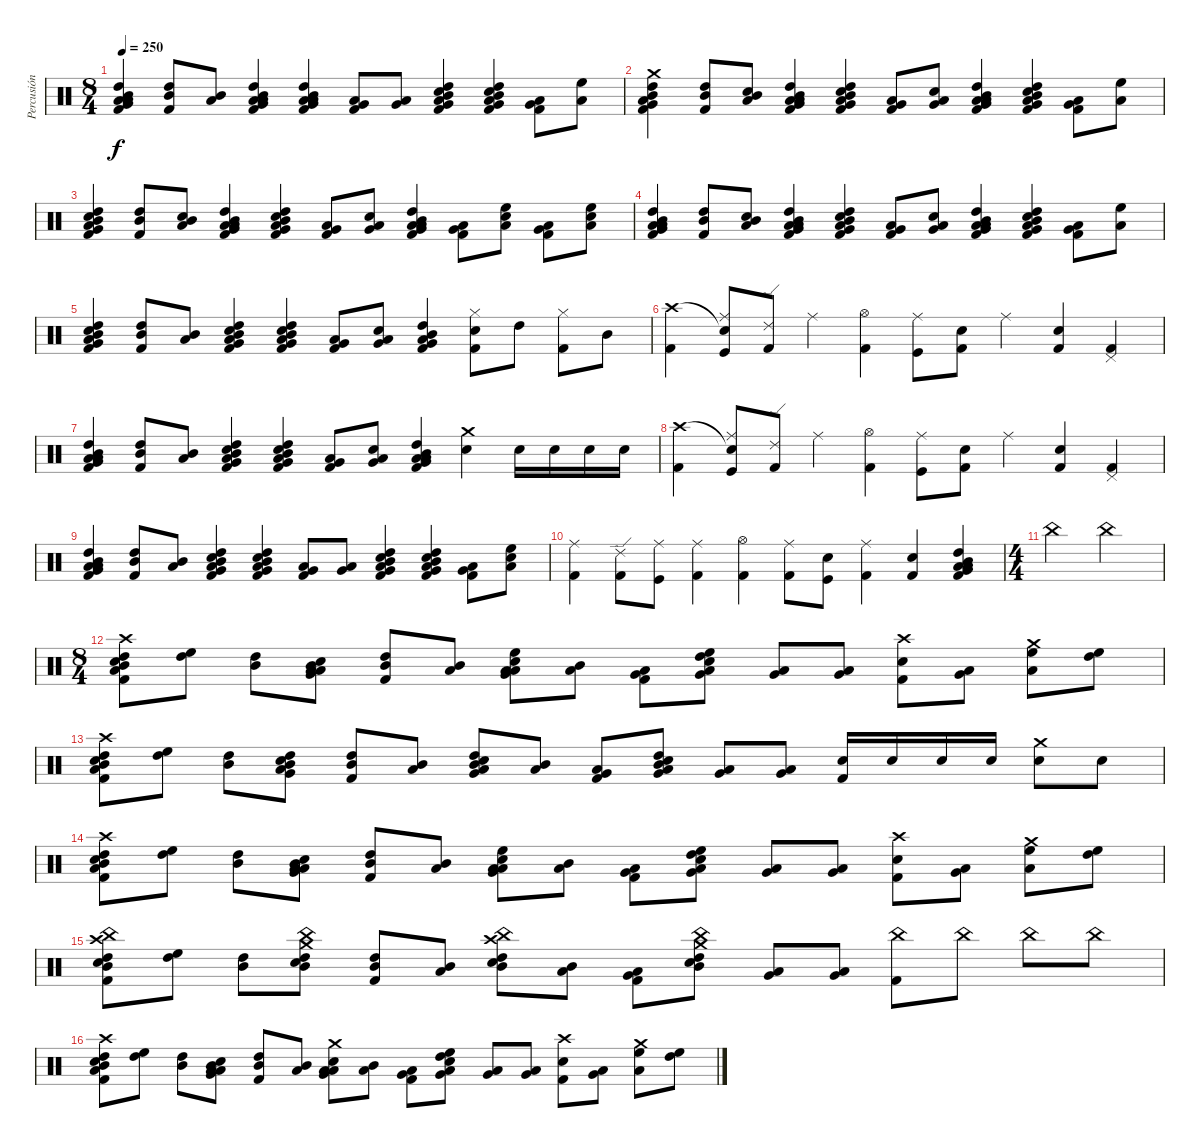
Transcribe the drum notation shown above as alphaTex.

\track ("Percusión" "Percusión") {instrument percussion}
\staff {score}
\articulation defaults
\ts (8 4)
\tempo 250
\clef neutral
\ks c
("Low Floor Tom (hit)" "Very Low Tom (hit)" "Low Tom (hit)" "Mid Tom (hit)" "High Tom (hit)" "Kick (hit) 2").4{dy f} ("Mid Tom (hit)" "High Tom (hit)" "Kick (hit) 2").8 ("Low Tom (hit)" "Mid Tom (hit)").8 ("Low Floor Tom (hit)" "Very Low Tom (hit)" "Low Tom (hit)" "Mid Tom (hit)" "High Tom (hit)" "Kick (hit) 2").4 ("Low Floor Tom (hit)" "Very Low Tom (hit)" "Low Tom (hit)" "Mid Tom (hit)" "High Tom (hit)" "Kick (hit) 2").4 ("Very Low Tom (hit)" "Low Tom (hit)" "Kick (hit) 2").8 ("Low Floor Tom (hit)" "Very Low Tom (hit)").8 ("Electric Snare (hit)" "Very Low Tom (hit)" "Low Tom (hit)" "Mid Tom (hit)" "High Tom (hit)" "Kick (hit) 2").4 ("Electric Snare (hit)" "Very Low Tom (hit)" "Low Tom (hit)" "Mid Tom (hit)" "High Tom (hit)" "Kick (hit) 2").4 ("Low Floor Tom (hit)" "Very Low Tom (hit)" "Kick (hit) 2").8 ("High Floor Tom (hit)" "Low Floor Tom (hit)").8 |
("Crash medium (hit)" "Very Low Tom (hit)" "Low Tom (hit)" "Mid Tom (hit)" "High Tom (hit)" "Kick (hit) 2").4 ("Mid Tom (hit)" "High Tom (hit)" "Kick (hit) 2").8 ("Electric Snare (hit)" "Low Tom (hit)" "Mid Tom (hit)").8 ("Low Floor Tom (hit)" "Very Low Tom (hit)" "Low Tom (hit)" "Mid Tom (hit)" "High Tom (hit)" "Kick (hit) 2").4 ("Electric Snare (hit)" "Very Low Tom (hit)" "Low Tom (hit)" "Mid Tom (hit)" "High Tom (hit)" "Kick (hit) 2").4 ("Very Low Tom (hit)" "Low Tom (hit)" "Kick (hit) 2").8 ("Electric Snare (hit)" "Low Floor Tom (hit)" "Very Low Tom (hit)").8 ("Low Floor Tom (hit)" "Very Low Tom (hit)" "Low Tom (hit)" "Mid Tom (hit)" "High Tom (hit)" "Kick (hit) 2").4 ("Electric Snare (hit)" "Very Low Tom (hit)" "Low Tom (hit)" "Mid Tom (hit)" "High Tom (hit)" "Kick (hit) 2").4 ("Low Floor Tom (hit)" "Very Low Tom (hit)" "Kick (hit) 2").8 ("High Floor Tom (hit)" "Low Floor Tom (hit)").8 |
("Electric Snare (hit)" "Very Low Tom (hit)" "Low Tom (hit)" "Mid Tom (hit)" "High Tom (hit)" "Kick (hit) 2").4 ("Mid Tom (hit)" "High Tom (hit)" "Kick (hit) 2").8 ("Electric Snare (hit)" "Low Tom (hit)" "Mid Tom (hit)").8 ("Low Floor Tom (hit)" "Very Low Tom (hit)" "Low Tom (hit)" "Mid Tom (hit)" "High Tom (hit)" "Kick (hit) 2").4 ("Electric Snare (hit)" "Very Low Tom (hit)" "Low Tom (hit)" "Mid Tom (hit)" "High Tom (hit)" "Kick (hit) 2").4 ("Very Low Tom (hit)" "Low Tom (hit)" "Kick (hit) 2").8 ("Electric Snare (hit)" "Low Floor Tom (hit)" "Very Low Tom (hit)").8 ("Low Floor Tom (hit)" "Very Low Tom (hit)" "Low Tom (hit)" "Mid Tom (hit)" "High Tom (hit)" "Kick (hit) 2").4 ("Low Floor Tom (hit)" "Very Low Tom (hit)" "Kick (hit) 2").8 ("Electric Snare (hit)" "High Floor Tom (hit)" "Low Floor Tom (hit)").8 ("Low Floor Tom (hit)" "Very Low Tom (hit)" "Kick (hit) 2").8 ("Electric Snare (hit)" "High Floor Tom (hit)" "Low Floor Tom (hit)").8 |
("Low Floor Tom (hit)" "Very Low Tom (hit)" "Low Tom (hit)" "Mid Tom (hit)" "High Tom (hit)" "Kick (hit) 2").4 ("Mid Tom (hit)" "High Tom (hit)" "Kick (hit) 2").8 ("Electric Snare (hit)" "Low Tom (hit)" "Mid Tom (hit)").8 ("Low Floor Tom (hit)" "Very Low Tom (hit)" "Low Tom (hit)" "Mid Tom (hit)" "High Tom (hit)" "Kick (hit) 2").4 ("Electric Snare (hit)" "Very Low Tom (hit)" "Low Tom (hit)" "Mid Tom (hit)" "High Tom (hit)" "Kick (hit) 2").4 ("Very Low Tom (hit)" "Low Tom (hit)" "Kick (hit) 2").8 ("Electric Snare (hit)" "Low Floor Tom (hit)" "Very Low Tom (hit)").8 ("Low Floor Tom (hit)" "Very Low Tom (hit)" "Low Tom (hit)" "Mid Tom (hit)" "High Tom (hit)" "Kick (hit) 2").4 ("Electric Snare (hit)" "Very Low Tom (hit)" "Low Tom (hit)" "Mid Tom (hit)" "High Tom (hit)" "Kick (hit) 2").4 ("Low Floor Tom (hit)" "Very Low Tom (hit)" "Kick (hit) 2").8 ("High Floor Tom (hit)" "Low Floor Tom (hit)").8 |
("Electric Snare (hit)" "Very Low Tom (hit)" "Low Tom (hit)" "Mid Tom (hit)" "High Tom (hit)" "Kick (hit) 2").4 ("Mid Tom (hit)" "High Tom (hit)" "Kick (hit) 2").8 ("Low Tom (hit)" "Mid Tom (hit)").8 ("Electric Snare (hit)" "Very Low Tom (hit)" "Low Tom (hit)" "Mid Tom (hit)" "High Tom (hit)" "Kick (hit) 2").4 ("Electric Snare (hit)" "Very Low Tom (hit)" "Low Tom (hit)" "Mid Tom (hit)" "High Tom (hit)" "Kick (hit) 2").4 ("Very Low Tom (hit)" "Low Tom (hit)" "Kick (hit) 2").8 ("Electric Snare (hit)" "Low Floor Tom (hit)" "Very Low Tom (hit)").8 ("Very Low Tom (hit)" "Low Tom (hit)" "Mid Tom (hit)" "High Tom (hit)" "Kick (hit) 2").4 ("Electric Snare (hit)" "Hi-Hat (closed)" "Kick (hit) 2").8 "High Tom (hit)".8 ("Hi-Hat (closed)" "Kick (hit) 2").8 "Mid Tom (hit)".8 |
("Crash high (hit)" "Kick (hit) 2").4 ("Snare (hit)"{t} "Ride (middle)" "Kick (hit)").8 ("Ride (edge) 2" "Kick (hit) 2").8 "Ride (middle)".4 ("Hi-Hat (open)" "Kick (hit) 2").4 ("Ride (middle)" "Kick (hit)").8 ("Electric Snare (hit)" "Kick (hit) 2").8 "Ride (middle)".4 ("Electric Snare (hit)" "Kick (hit) 2").4 ("Pedal Hi-Hat (hit)" "Kick (hit) 2").4 |
("Low Floor Tom (hit)" "Very Low Tom (hit)" "Low Tom (hit)" "Mid Tom (hit)" "High Tom (hit)" "Kick (hit) 2").4 ("Mid Tom (hit)" "High Tom (hit)" "Kick (hit) 2").8 ("Low Tom (hit)" "Mid Tom (hit)").8 ("Electric Snare (hit)" "Very Low Tom (hit)" "Low Tom (hit)" "Mid Tom (hit)" "High Tom (hit)" "Kick (hit) 2").4 ("Electric Snare (hit)" "Very Low Tom (hit)" "Low Tom (hit)" "Mid Tom (hit)" "High Tom (hit)" "Kick (hit) 2").4 ("Very Low Tom (hit)" "Low Tom (hit)" "Kick (hit) 2").8 ("Electric Snare (hit)" "Low Floor Tom (hit)" "Very Low Tom (hit)").8 ("Low Floor Tom (hit)" "Very Low Tom (hit)" "Low Tom (hit)" "Mid Tom (hit)" "High Tom (hit)" "Kick (hit) 2").4 ("Crash medium (hit)" "Electric Snare (hit)").4 "Electric Snare (hit)".16 "Electric Snare (hit)".16 "Electric Snare (hit)".16 "Electric Snare (hit)".16 |
("Crash high (hit)" "Kick (hit) 2").4 ("Snare (hit)"{t} "Ride (middle)" "Kick (hit)").8 ("Ride (edge) 2" "Kick (hit) 2").8 "Ride (middle)".4 ("Hi-Hat (open)" "Kick (hit) 2").4 ("Ride (middle)" "Kick (hit)").8 ("Electric Snare (hit)" "Kick (hit) 2").8 "Ride (middle)".4 ("Electric Snare (hit)" "Kick (hit) 2").4 ("Pedal Hi-Hat (hit)" "Kick (hit) 2").4 |
("Low Floor Tom (hit)" "Very Low Tom (hit)" "Low Tom (hit)" "Mid Tom (hit)" "High Tom (hit)" "Kick (hit) 2").4 ("Mid Tom (hit)" "High Tom (hit)" "Kick (hit) 2").8 ("Low Tom (hit)" "Mid Tom (hit)").8 ("Electric Snare (hit)" "Very Low Tom (hit)" "Low Tom (hit)" "Mid Tom (hit)" "High Tom (hit)" "Kick (hit) 2").4 ("Electric Snare (hit)" "Very Low Tom (hit)" "Low Tom (hit)" "Mid Tom (hit)" "High Tom (hit)" "Kick (hit) 2").4 ("Very Low Tom (hit)" "Low Tom (hit)" "Kick (hit) 2").8 ("Low Floor Tom (hit)" "Very Low Tom (hit)").8 ("Electric Snare (hit)" "Very Low Tom (hit)" "Low Tom (hit)" "Mid Tom (hit)" "High Tom (hit)" "Kick (hit) 2").4 ("Electric Snare (hit)" "Very Low Tom (hit)" "Low Tom (hit)" "Mid Tom (hit)" "High Tom (hit)" "Kick (hit) 2").4 ("Low Floor Tom (hit)" "Very Low Tom (hit)" "Kick (hit) 2").8 ("Electric Snare (hit)" "High Floor Tom (hit)" "Low Floor Tom (hit)").8 |
("Ride (middle)" "Kick (hit) 2").4 ("Ride (edge) 2" "Kick (hit) 2").8 ("Ride (middle)" "Kick (hit)").8 ("Ride (middle)" "Kick (hit) 2").4 ("Hi-Hat (open)" "Kick (hit) 2").4 ("Ride (middle)" "Kick (hit) 2").8 ("Electric Snare (hit)" "Kick (hit)").8 ("Ride (middle)" "Kick (hit) 2").4 ("Electric Snare (hit)" "Kick (hit) 2").4 ("Low Floor Tom (hit)" "Very Low Tom (hit)" "Low Tom (hit)" "Mid Tom (hit)" "High Tom (hit)" "Kick (hit) 2").4 |
\ts (4 4)
"China (hit)".2 "China (hit)".2 |
\ts (8 4)
("Crash high (hit)" "Low Tom (hit)" "Mid Tom (hit)" "High Tom (hit)" "Electric Snare (hit)" "Kick (hit) 2").8 ("High Tom (hit)" "High Floor Tom (hit)").8 ("Mid Tom (hit)" "High Tom (hit)").8 ("Low Floor Tom (hit)" "Very Low Tom (hit)" "Low Tom (hit)" "Mid Tom (hit)" "Electric Snare (hit)").8 ("Mid Tom (hit)" "High Tom (hit)" "Kick (hit) 2").8 ("Low Tom (hit)" "Mid Tom (hit)").8 ("High Floor Tom (hit)" "Low Floor Tom (hit)" "Very Low Tom (hit)" "Low Tom (hit)" "Electric Snare (hit)").8 ("Low Tom (hit)" "Mid Tom (hit)").8 ("Very Low Tom (hit)" "Low Tom (hit)" "Kick (hit) 2").8 ("High Tom (hit)" "High Floor Tom (hit)" "Low Floor Tom (hit)" "Very Low Tom (hit)" "Electric Snare (hit)").8 ("Very Low Tom (hit)" "Low Tom (hit)").8 ("Low Floor Tom (hit)" "Very Low Tom (hit)").8 ("Crash high (hit)" "Electric Snare (hit)" "Kick (hit) 2").8 ("Low Floor Tom (hit)" "Very Low Tom (hit)").8 ("Crash medium (hit)" "High Floor Tom (hit)" "Low Floor Tom (hit)").8 ("High Tom (hit)" "High Floor Tom (hit)").8 |
("Crash high (hit)" "Low Tom (hit)" "Mid Tom (hit)" "High Tom (hit)" "Electric Snare (hit)" "Kick (hit) 2").8 ("High Tom (hit)" "High Floor Tom (hit)").8 ("Mid Tom (hit)" "High Tom (hit)").8 ("Very Low Tom (hit)" "Low Tom (hit)" "Mid Tom (hit)" "High Tom (hit)" "Electric Snare (hit)").8 ("Mid Tom (hit)" "High Tom (hit)" "Kick (hit) 2").8 ("Low Tom (hit)" "Mid Tom (hit)").8 ("Very Low Tom (hit)" "Low Tom (hit)" "Mid Tom (hit)" "High Tom (hit)" "Electric Snare (hit)").8 ("Low Tom (hit)" "Mid Tom (hit)").8 ("Very Low Tom (hit)" "Low Tom (hit)" "Kick (hit) 2").8 ("Very Low Tom (hit)" "Low Tom (hit)" "Mid Tom (hit)" "High Tom (hit)" "Electric Snare (hit)").8 ("Very Low Tom (hit)" "Low Tom (hit)").8 ("Low Floor Tom (hit)" "Very Low Tom (hit)").8 ("Electric Snare (hit)" "Kick (hit) 2").16 "Electric Snare (hit)".16 "Electric Snare (hit)".16 "Electric Snare (hit)".16 ("Crash medium (hit)" "Electric Snare (hit)").8 "Electric Snare (hit)".8 |
("Crash high (hit)" "Low Tom (hit)" "Mid Tom (hit)" "High Tom (hit)" "Electric Snare (hit)" "Kick (hit) 2").8 ("High Tom (hit)" "High Floor Tom (hit)").8 ("Mid Tom (hit)" "High Tom (hit)").8 ("Low Floor Tom (hit)" "Very Low Tom (hit)" "Low Tom (hit)" "Mid Tom (hit)" "Electric Snare (hit)").8 ("Mid Tom (hit)" "High Tom (hit)" "Kick (hit) 2").8 ("Low Tom (hit)" "Mid Tom (hit)").8 ("High Floor Tom (hit)" "Low Floor Tom (hit)" "Very Low Tom (hit)" "Low Tom (hit)" "Electric Snare (hit)").8 ("Low Tom (hit)" "Mid Tom (hit)").8 ("Very Low Tom (hit)" "Low Tom (hit)" "Kick (hit) 2").8 ("High Tom (hit)" "High Floor Tom (hit)" "Low Floor Tom (hit)" "Very Low Tom (hit)" "Electric Snare (hit)").8 ("Very Low Tom (hit)" "Low Tom (hit)").8 ("Low Floor Tom (hit)" "Very Low Tom (hit)").8 ("Crash high (hit)" "Electric Snare (hit)" "Kick (hit) 2").8 ("Low Floor Tom (hit)" "Very Low Tom (hit)").8 ("Crash medium (hit)" "High Floor Tom (hit)" "Low Floor Tom (hit)").8 ("High Tom (hit)" "High Floor Tom (hit)").8 |
("Crash high (hit)" "China (hit)" "Mid Tom (hit)" "High Tom (hit)" "Electric Snare (hit)" "Kick (hit) 2").8 ("High Tom (hit)" "High Floor Tom (hit)").8 ("Mid Tom (hit)" "High Tom (hit)").8 ("Crash medium (hit)" "China (hit)" "Mid Tom (hit)" "High Tom (hit)" "Electric Snare (hit)").8 ("Mid Tom (hit)" "High Tom (hit)" "Kick (hit) 2").8 ("Low Tom (hit)" "Mid Tom (hit)").8 ("Crash high (hit)" "China (hit)" "Mid Tom (hit)" "High Tom (hit)" "Electric Snare (hit)").8 ("Low Tom (hit)" "Mid Tom (hit)").8 ("Very Low Tom (hit)" "Low Tom (hit)" "Kick (hit) 2").8 ("Crash medium (hit)" "China (hit)" "Mid Tom (hit)" "High Tom (hit)" "Electric Snare (hit)").8 ("Very Low Tom (hit)" "Low Tom (hit)").8 ("Low Floor Tom (hit)" "Very Low Tom (hit)").8 ("China (hit)" "Kick (hit) 2").8 "China (hit)".8 "China (hit)".8 "China (hit)".8 |
("Crash high (hit)" "Low Tom (hit)" "Mid Tom (hit)" "High Tom (hit)" "Electric Snare (hit)" "Kick (hit) 2").8 ("High Tom (hit)" "High Floor Tom (hit)").8 ("Mid Tom (hit)" "High Tom (hit)").8 ("Low Floor Tom (hit)" "Very Low Tom (hit)" "Low Tom (hit)" "Mid Tom (hit)" "Electric Snare (hit)").8 ("Mid Tom (hit)" "High Tom (hit)" "Kick (hit) 2").8 ("Low Tom (hit)" "Mid Tom (hit)").8 ("Crash medium (hit)" "Low Floor Tom (hit)" "Very Low Tom (hit)" "Low Tom (hit)" "Electric Snare (hit)").8 ("Low Tom (hit)" "Mid Tom (hit)").8 ("Very Low Tom (hit)" "Low Tom (hit)" "Kick (hit) 2").8 ("High Tom (hit)" "High Floor Tom (hit)" "Low Floor Tom (hit)" "Very Low Tom (hit)" "Electric Snare (hit)").8 ("Very Low Tom (hit)" "Low Tom (hit)").8 ("Low Floor Tom (hit)" "Very Low Tom (hit)").8 ("Crash high (hit)" "Electric Snare (hit)" "Kick (hit) 2").8 ("Low Floor Tom (hit)" "Very Low Tom (hit)").8 ("Crash medium (hit)" "High Floor Tom (hit)" "Low Floor Tom (hit)").8 ("High Tom (hit)" "High Floor Tom (hit)").8
